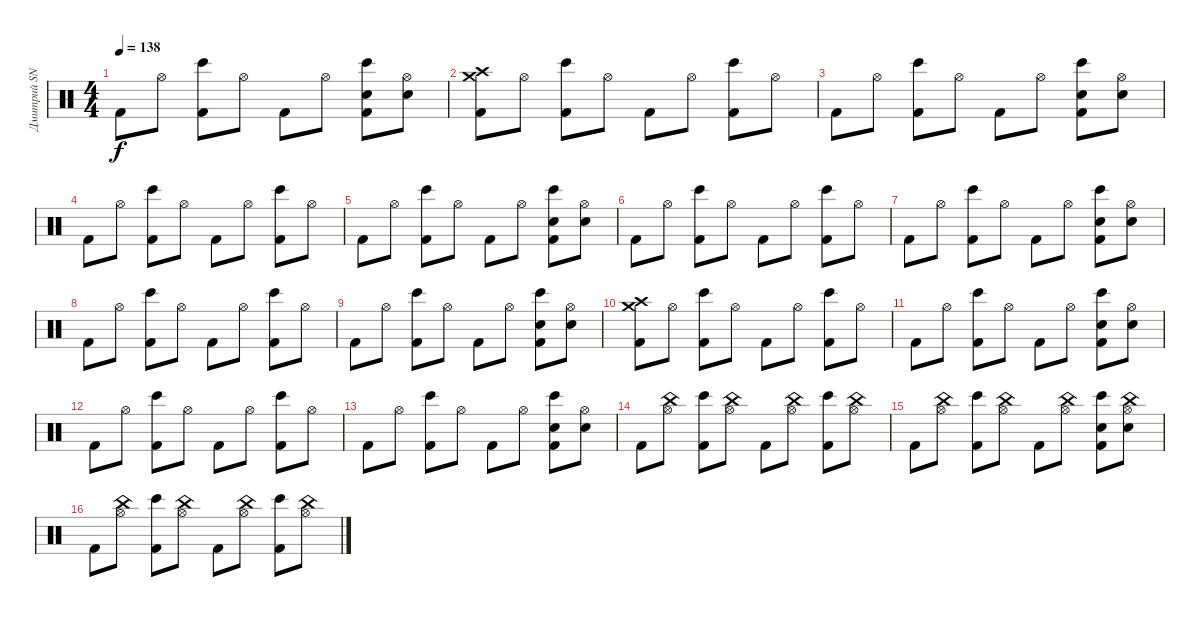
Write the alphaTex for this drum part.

\track ("Дмитрий SNAKE Хакимов (ударные)" "Дмитрий SN") {instrument percussion}
\staff {score}
\articulation defaults
\ts (4 4)
\tempo 138
\clef neutral
\ks c "Kick (hit) 2".8{dy f} "Hi-Hat (open)".8
("Bongo High (hit)" "Kick (hit) 2").8 "Hi-Hat (open)".8 "Kick (hit) 2".8 "Hi-Hat (open)".8 ("Bongo High (hit)" "Electric Snare (hit)" "Kick (hit) 2").8 ("Hi-Hat (open)" "Electric Snare (hit)").8 |
("Crash high (hit)" "Crash medium (hit)" "Kick (hit) 2").8 "Hi-Hat (open)".8 ("Bongo High (hit)" "Kick (hit) 2").8 "Hi-Hat (open)".8 "Kick (hit) 2".8 "Hi-Hat (open)".8 ("Bongo High (hit)" "Kick (hit) 2").8 "Hi-Hat (open)".8 |
"Kick (hit) 2".8 "Hi-Hat (open)".8 ("Bongo High (hit)" "Kick (hit) 2").8 "Hi-Hat (open)".8 "Kick (hit) 2".8 "Hi-Hat (open)".8 ("Bongo High (hit)" "Electric Snare (hit)" "Kick (hit) 2").8 ("Hi-Hat (open)" "Electric Snare (hit)").8 |
"Kick (hit) 2".8 "Hi-Hat (open)".8 ("Bongo High (hit)" "Kick (hit) 2").8 "Hi-Hat (open)".8 "Kick (hit) 2".8 "Hi-Hat (open)".8 ("Bongo High (hit)" "Kick (hit) 2").8 "Hi-Hat (open)".8 |
"Kick (hit) 2".8 "Hi-Hat (open)".8 ("Bongo High (hit)" "Kick (hit) 2").8 "Hi-Hat (open)".8 "Kick (hit) 2".8 "Hi-Hat (open)".8 ("Bongo High (hit)" "Electric Snare (hit)" "Kick (hit) 2").8 ("Hi-Hat (open)" "Electric Snare (hit)").8 |
"Kick (hit) 2".8 "Hi-Hat (open)".8 ("Bongo High (hit)" "Kick (hit) 2").8 "Hi-Hat (open)".8 "Kick (hit) 2".8 "Hi-Hat (open)".8 ("Bongo High (hit)" "Kick (hit) 2").8 "Hi-Hat (open)".8 |
"Kick (hit) 2".8 "Hi-Hat (open)".8 ("Bongo High (hit)" "Kick (hit) 2").8 "Hi-Hat (open)".8 "Kick (hit) 2".8 "Hi-Hat (open)".8 ("Bongo High (hit)" "Electric Snare (hit)" "Kick (hit) 2").8 ("Hi-Hat (open)" "Electric Snare (hit)").8 |
"Kick (hit) 2".8 "Hi-Hat (open)".8 ("Bongo High (hit)" "Kick (hit) 2").8 "Hi-Hat (open)".8 "Kick (hit) 2".8 "Hi-Hat (open)".8 ("Bongo High (hit)" "Kick (hit) 2").8 "Hi-Hat (open)".8 |
"Kick (hit) 2".8 "Hi-Hat (open)".8 ("Bongo High (hit)" "Kick (hit) 2").8 "Hi-Hat (open)".8 "Kick (hit) 2".8 "Hi-Hat (open)".8 ("Bongo High (hit)" "Electric Snare (hit)" "Kick (hit) 2").8 ("Hi-Hat (open)" "Electric Snare (hit)").8 |
("Crash high (hit)" "Crash medium (hit)" "Kick (hit) 2").8 "Hi-Hat (open)".8 ("Bongo High (hit)" "Kick (hit) 2").8 "Hi-Hat (open)".8 "Kick (hit) 2".8 "Hi-Hat (open)".8 ("Bongo High (hit)" "Kick (hit) 2").8 "Hi-Hat (open)".8 |
"Kick (hit) 2".8 "Hi-Hat (open)".8 ("Bongo High (hit)" "Kick (hit) 2").8 "Hi-Hat (open)".8 "Kick (hit) 2".8 "Hi-Hat (open)".8 ("Bongo High (hit)" "Electric Snare (hit)" "Kick (hit) 2").8 ("Hi-Hat (open)" "Electric Snare (hit)").8 |
"Kick (hit) 2".8 "Hi-Hat (open)".8 ("Bongo High (hit)" "Kick (hit) 2").8 "Hi-Hat (open)".8 "Kick (hit) 2".8 "Hi-Hat (open)".8 ("Bongo High (hit)" "Kick (hit) 2").8 "Hi-Hat (open)".8 |
"Kick (hit) 2".8 "Hi-Hat (open)".8 ("Bongo High (hit)" "Kick (hit) 2").8 "Hi-Hat (open)".8 "Kick (hit) 2".8 "Hi-Hat (open)".8 ("Bongo High (hit)" "Electric Snare (hit)" "Kick (hit) 2").8 ("Hi-Hat (open)" "Electric Snare (hit)").8 |
"Kick (hit) 2".8 ("China (hit)" "Hi-Hat (open)").8 ("Bongo High (hit)" "Kick (hit) 2").8 ("China (hit)" "Hi-Hat (open)").8 "Kick (hit) 2".8 ("China (hit)" "Hi-Hat (open)").8 ("Bongo High (hit)" "Kick (hit) 2").8 ("China (hit)" "Hi-Hat (open)").8 |
"Kick (hit) 2".8 ("China (hit)" "Hi-Hat (open)").8 ("Bongo High (hit)" "Kick (hit) 2").8 ("China (hit)" "Hi-Hat (open)").8 "Kick (hit) 2".8 ("China (hit)" "Hi-Hat (open)").8 ("Bongo High (hit)" "Electric Snare (hit)" "Kick (hit) 2").8 ("China (hit)" "Hi-Hat (open)" "Electric Snare (hit)").8 |
"Kick (hit) 2".8 ("China (hit)" "Hi-Hat (open)").8 ("Bongo High (hit)" "Kick (hit) 2").8 ("China (hit)" "Hi-Hat (open)").8 "Kick (hit) 2".8 ("China (hit)" "Hi-Hat (open)").8 ("Bongo High (hit)" "Kick (hit) 2").8 ("China (hit)" "Hi-Hat (open)").8
